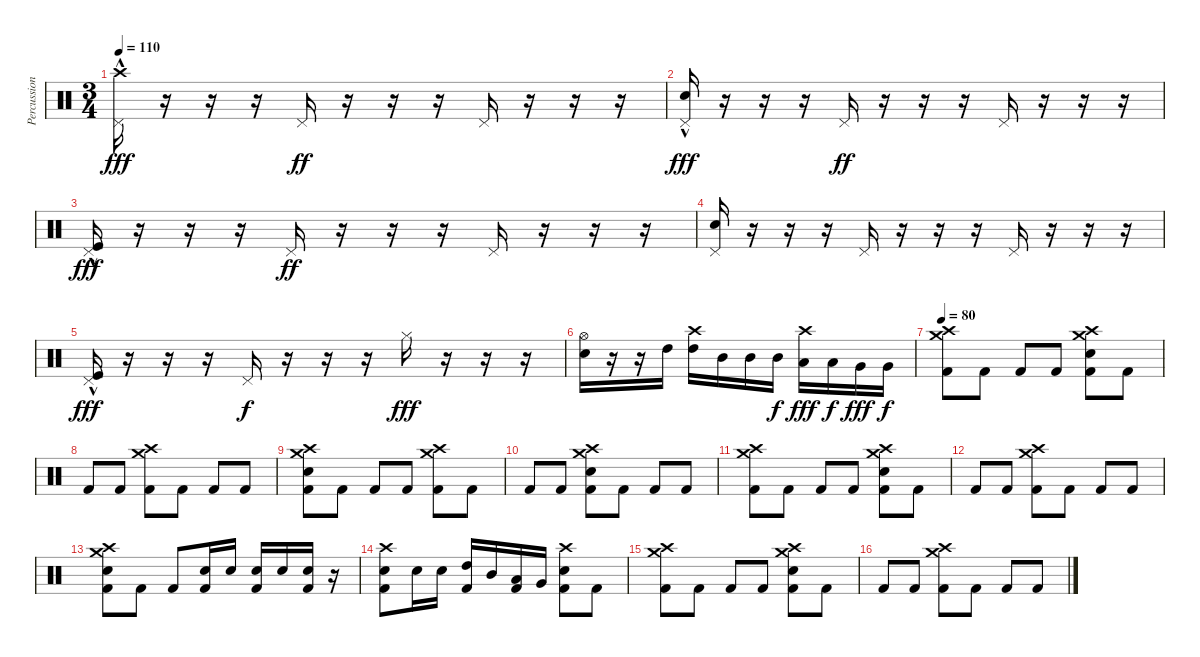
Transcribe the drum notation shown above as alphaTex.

\track ("Percussion" "Percussion") {instrument percussion}
\staff {score}
\articulation defaults
\ts (3 4)
\tempo 110
\clef neutral
\ks c
("Pedal Hi-Hat (hit)" "Crash high (hit)"{hac}).16{dy fff} r.16 r.16 r.16 "Pedal Hi-Hat (hit)".16{dy ff} r.16 r.16 r.16 "Pedal Hi-Hat (hit)".16 r.16 r.16 r.16 |
("Pedal Hi-Hat (hit)" "Electric Snare (hit)"{hac}).16{dy fff} r.16 r.16 r.16 "Pedal Hi-Hat (hit)".16{dy ff} r.16 r.16 r.16 "Pedal Hi-Hat (hit)".16 r.16 r.16 r.16 |
("Pedal Hi-Hat (hit)" "Kick (hit)"{hac}).16{dy fff} r.16 r.16 r.16 "Pedal Hi-Hat (hit)".16{dy ff} r.16 r.16 r.16 "Pedal Hi-Hat (hit)".16 r.16 r.16 r.16 |
("Pedal Hi-Hat (hit)" "Electric Snare (hit)").16 r.16 r.16 r.16 "Pedal Hi-Hat (hit)".16 r.16 r.16 r.16 "Pedal Hi-Hat (hit)".16 r.16 r.16 r.16 |
("Pedal Hi-Hat (hit)" "Kick (hit)"{hac}).16{dy fff} r.16 r.16 r.16 "Pedal Hi-Hat (hit)".16{dy f} r.16 r.16 r.16 "Hi-Hat (closed)".16{dy fff} r.16 r.16 r.16 |
("Hi-Hat (open)" "Electric Snare (hit)").16 r.16 r.16 "High Tom (hit)".16 ("Crash high (hit)" "High Tom (hit)").16 "Mid Tom (hit)".16 "Mid Tom (hit)".16 "Mid Tom (hit)".16{dy f} ("Crash high (hit)" "Low Tom (hit)").16{dy fff} "Low Tom (hit)".16{dy f} "Very Low Tom (hit)".16{dy fff} "Very Low Tom (hit)".16{dy f} |
\tempo 80
("Crash high (hit)" "Crash medium (hit)" "Kick (hit) 2").8 "Kick (hit) 2".8 "Kick (hit) 2".8 "Kick (hit) 2".8 ("Crash high (hit)" "Crash medium (hit)" "Electric Snare (hit)" "Kick (hit) 2").8 "Kick (hit) 2".8 |
"Kick (hit) 2".8 "Kick (hit) 2".8 ("Crash high (hit)" "Crash medium (hit)" "Kick (hit) 2").8 "Kick (hit) 2".8 "Kick (hit) 2".8 "Kick (hit) 2".8 |
("Crash high (hit)" "Crash medium (hit)" "Electric Snare (hit)" "Kick (hit) 2").8 "Kick (hit) 2".8 "Kick (hit) 2".8 "Kick (hit) 2".8 ("Crash high (hit)" "Crash medium (hit)" "Kick (hit) 2").8 "Kick (hit) 2".8 |
"Kick (hit) 2".8 "Kick (hit) 2".8 ("Crash high (hit)" "Crash medium (hit)" "Electric Snare (hit)" "Kick (hit) 2").8 "Kick (hit) 2".8 "Kick (hit) 2".8 "Kick (hit) 2".8 |
("Crash high (hit)" "Crash medium (hit)" "Kick (hit) 2").8 "Kick (hit) 2".8 "Kick (hit) 2".8 "Kick (hit) 2".8 ("Crash high (hit)" "Crash medium (hit)" "Electric Snare (hit)" "Kick (hit) 2").8 "Kick (hit) 2".8 |
"Kick (hit) 2".8 "Kick (hit) 2".8 ("Crash high (hit)" "Crash medium (hit)" "Kick (hit) 2").8 "Kick (hit) 2".8 "Kick (hit) 2".8 "Kick (hit) 2".8 |
("Crash high (hit)" "Crash medium (hit)" "Electric Snare (hit)" "Kick (hit) 2").8 "Kick (hit) 2".8 "Kick (hit) 2".8 ("Electric Snare (hit)" "Kick (hit) 2").16 "Electric Snare (hit)".16 ("Electric Snare (hit)" "Kick (hit) 2").16 "Electric Snare (hit)".16 ("Electric Snare (hit)" "Kick (hit) 2").16 r.16 |
("Crash high (hit)" "Electric Snare (hit)" "Kick (hit) 2").8 "Electric Snare (hit)".16 "Electric Snare (hit)".16 ("High Tom (hit)" "Kick (hit) 2").16 "Mid Tom (hit)".16 ("Low Tom (hit)" "Kick (hit) 2").16 "Very Low Tom (hit)".16 ("Crash high (hit)" "Electric Snare (hit)" "Kick (hit) 2").8 "Kick (hit) 2".8 |
("Crash high (hit)" "Crash medium (hit)" "Kick (hit) 2").8 "Kick (hit) 2".8 "Kick (hit) 2".8 "Kick (hit) 2".8 ("Crash high (hit)" "Crash medium (hit)" "Electric Snare (hit)" "Kick (hit) 2").8 "Kick (hit) 2".8 |
"Kick (hit) 2".8 "Kick (hit) 2".8 ("Crash high (hit)" "Crash medium (hit)" "Kick (hit) 2").8 "Kick (hit) 2".8 "Kick (hit) 2".8 "Kick (hit) 2".8
